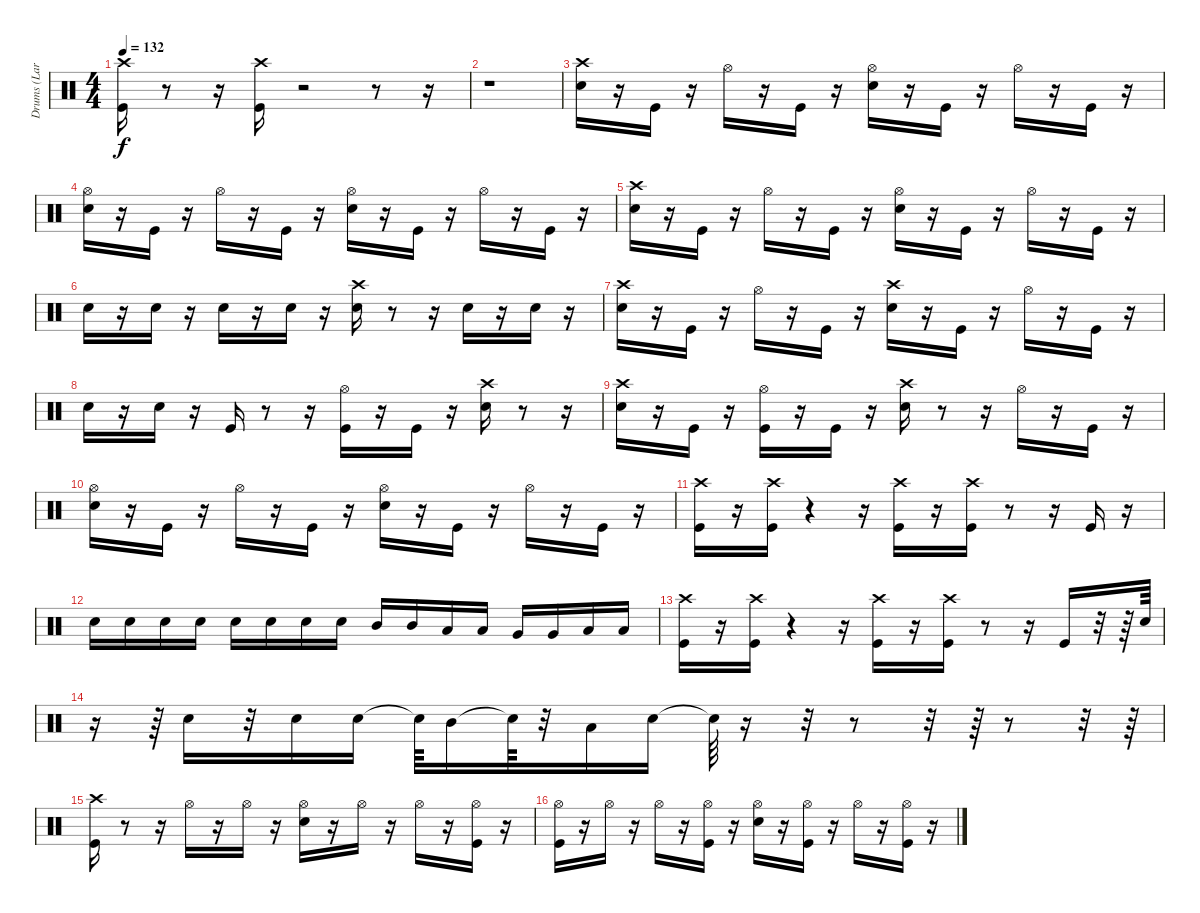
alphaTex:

\track ("Drums (Lars)" "Drums (Lar") {instrument percussion}
\staff {score}
\articulation defaults
\ts (4 4)
\tempo 132
\clef neutral
\ks c
("Crash high (hit)" "Kick (hit)").16{dy f} r.8 r.16 ("Crash high (hit)" "Kick (hit)").16 r.2 r.8 r.16 |
r.1 |
("Crash high (hit)" "Snare (hit) 2").16 r.16 "Kick (hit)".16 r.16 "Hi-Hat (open)".16 r.16 "Kick (hit)".16 r.16 ("Snare (hit) 2" "Hi-Hat (open)").16 r.16 "Kick (hit)".16 r.16 "Hi-Hat (open)".16 r.16 "Kick (hit)".16 r.16 |
("Snare (hit) 2" "Hi-Hat (open)").16 r.16 "Kick (hit)".16 r.16 "Hi-Hat (open)".16 r.16 "Kick (hit)".16 r.16 ("Snare (hit) 2" "Hi-Hat (open)").16 r.16 "Kick (hit)".16 r.16 "Hi-Hat (open)".16 r.16 "Kick (hit)".16 r.16 |
("Snare (hit) 2" "Crash high (hit)").16 r.16 "Kick (hit)".16 r.16 "Hi-Hat (open)".16 r.16 "Kick (hit)".16 r.16 ("Snare (hit) 2" "Hi-Hat (open)").16 r.16 "Kick (hit)".16 r.16 "Hi-Hat (open)".16 r.16 "Kick (hit)".16 r.16 |
"Snare (hit) 2".16 r.16 "Snare (hit) 2".16 r.16 "Snare (hit) 2".16 r.16 "Snare (hit) 2".16 r.16 ("Snare (hit) 2" "Crash high (hit)").16 r.8 r.16 "Snare (hit) 2".16 r.16 "Snare (hit) 2".16 r.16 |
("Snare (hit) 2" "Crash high (hit)").16 r.16 "Kick (hit)".16 r.16 "Hi-Hat (open)".16 r.16 "Kick (hit)".16 r.16 ("Snare (hit) 2" "Crash high (hit)").16 r.16 "Kick (hit)".16 r.16 "Hi-Hat (open)".16 r.16 "Kick (hit)".16 r.16 |
"Snare (hit) 2".16 r.16 "Snare (hit) 2".16 r.16 "Kick (hit)".16 r.8 r.16 ("Hi-Hat (open)" "Kick (hit)").16 r.16 "Kick (hit)".16 r.16 ("Snare (hit) 2" "Crash high (hit)").16 r.8 r.16 |
("Snare (hit) 2" "Crash high (hit)").16 r.16 "Kick (hit)".16 r.16 ("Kick (hit)" "Hi-Hat (open)").16 r.16 "Kick (hit)".16 r.16 ("Snare (hit) 2" "Crash high (hit)").16 r.8 r.16 "Hi-Hat (open)".16 r.16 "Kick (hit)".16 r.16 |
("Hi-Hat (open)" "Snare (hit) 2").16 r.16 "Kick (hit)".16 r.16 "Hi-Hat (open)".16 r.16 "Kick (hit)".16 r.16 ("Snare (hit) 2" "Hi-Hat (open)").16 r.16 "Kick (hit)".16 r.16 "Hi-Hat (open)".16 r.16 "Kick (hit)".16 r.16 |
("Kick (hit)" "Crash high (hit)").16 r.16 ("Crash high (hit)" "Kick (hit)").16 r.4 r.16 ("Crash high (hit)" "Kick (hit)").16 r.16 ("Kick (hit)" "Crash high (hit)").16 r.8 r.16 "Kick (hit)".16 r.16 |
"Snare (hit) 2".16 "Snare (hit) 2".16 "Snare (hit) 2".16 "Snare (hit) 2".16 "Snare (hit) 2".16 "Snare (hit) 2".16 "Snare (hit) 2".16 "Snare (hit) 2".16 "Mid Tom (hit)".16 "Mid Tom (hit)".16 "Low Tom (hit)".16 "Low Tom (hit)".16 "Very Low Tom (hit)".16 "Very Low Tom (hit)".16 "Low Floor Tom (hit)".16 "Low Floor Tom (hit)".16 |
("Crash high (hit)" "Kick (hit)").16 r.16 ("Crash high (hit)" "Kick (hit)").16 r.4 r.16 ("Crash high (hit)" "Kick (hit)").16 r.16 ("Kick (hit)" "Crash high (hit)").16 r.8 r.16 "Kick (hit)".16 r.32 r.64 "Snare (hit) 2".64 |
r.16 r.64 "Snare (hit) 2".16 r.32 "Snare (hit) 2".16 "Snare (hit) 2".16 "Snare (hit)"{t}.64 "Mid Tom (hit)".16 "Snare (hit)"{t}.64 r.32 "Low Tom (hit)".16 "Snare (hit) 2".16 "Snare (hit)"{t}.64 r.16 r.32 r.8 r.32 r.64 r.8 r.32 r.64 |
("Kick (hit)" "Crash high (hit)").16 r.8 r.16 "Hi-Hat (open)".16 r.16 "Hi-Hat (open)".16 r.16 ("Snare (hit) 2" "Hi-Hat (open)").16 r.16 "Hi-Hat (open)".16 r.16 "Hi-Hat (open)".16 r.16 ("Kick (hit)" "Hi-Hat (open)").16 r.16 |
("Kick (hit)" "Hi-Hat (open)").16 r.16 "Hi-Hat (open)".16 r.16 "Hi-Hat (open)".16 r.16 ("Kick (hit)" "Hi-Hat (open)").16 r.16 ("Snare (hit) 2" "Hi-Hat (open)").16 r.16 ("Kick (hit)" "Hi-Hat (open)").16 r.16 "Hi-Hat (open)".16 r.16 ("Kick (hit)" "Hi-Hat (open)").16 r.16
